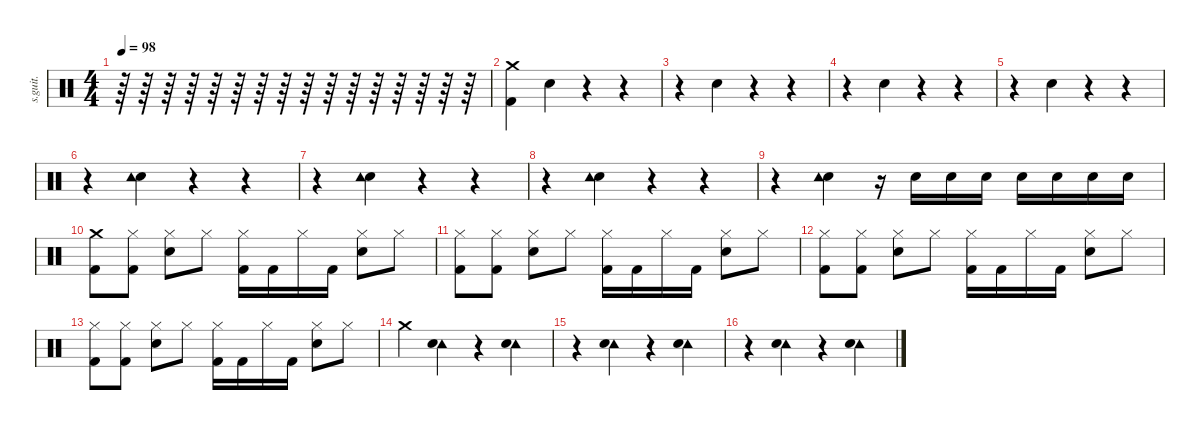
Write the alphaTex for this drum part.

\defaultSystemsLayout 4
\hideDynamics
\bracketExtendMode nobrackets
\track ("" "s.guit.") {instrument percussion}
\staff {score}
\articulation defaults
\ts (4 4)
\beaming (8 2 2 2 2)
\ac
\tempo 98
\clef neutral
\ks c
r.64{dy ff} r.64 r.64 r.64 r.64 r.64 r.64 r.64 r.64 r.64 r.64 r.64 r.64 r.64 r.64 r.64 |
("Crash medium (hit)" "Kick (hit) 2").4 "Hand Clap (hit)".4 r.4 r.4 |
r.4 "Hand Clap (hit)".4 r.4 r.4 |
r.4 "Hand Clap (hit)".4 r.4 r.4 |
r.4 "Hand Clap (hit)".4 r.4 r.4 |
r.4 ("Hand Clap (hit)" "Tambourine (hit)").4 r.4 r.4 |
r.4 ("Hand Clap (hit)" "Tambourine (hit)").4 r.4 r.4 |
r.4 ("Hand Clap (hit)" "Tambourine (hit)").4 r.4 r.4 |
r.4 ("Hand Clap (hit)" "Tambourine (hit)").4 r.16 "Snare (hit) 2".16 "Snare (hit) 2".16 "Snare (hit) 2".16 "Snare (hit) 2".16 "Snare (hit) 2".16 "Snare (hit) 2".16 "Snare (hit) 2".16 |
("Crash medium (hit)" "Kick (hit) 2").8 ("Hi-Hat (closed)" "Kick (hit) 2").8 ("Hi-Hat (closed)" "Snare (hit) 2").8 "Hi-Hat (closed)".8 ("Hi-Hat (closed)" "Kick (hit) 2").16 "Kick (hit) 2".16 "Hi-Hat (closed)".16 "Kick (hit) 2".16 ("Hi-Hat (closed)" "Snare (hit) 2").8 "Hi-Hat (closed)".8 |
("Hi-Hat (closed)" "Kick (hit) 2").8 ("Hi-Hat (closed)" "Kick (hit) 2").8 ("Hi-Hat (closed)" "Snare (hit) 2").8 "Hi-Hat (closed)".8 ("Hi-Hat (closed)" "Kick (hit) 2").16 "Kick (hit) 2".16 "Hi-Hat (closed)".16 "Kick (hit) 2".16 ("Hi-Hat (closed)" "Snare (hit) 2").8 "Hi-Hat (closed)".8 |
("Hi-Hat (closed)" "Kick (hit) 2").8 ("Hi-Hat (closed)" "Kick (hit) 2").8 ("Hi-Hat (closed)" "Snare (hit) 2").8 "Hi-Hat (closed)".8 ("Hi-Hat (closed)" "Kick (hit) 2").16 "Kick (hit) 2".16 "Hi-Hat (closed)".16 "Kick (hit) 2".16 ("Hi-Hat (closed)" "Snare (hit) 2").8 "Hi-Hat (closed)".8 |
("Hi-Hat (closed)" "Kick (hit) 2").8 ("Hi-Hat (closed)" "Kick (hit) 2").8 ("Hi-Hat (closed)" "Snare (hit) 2").8 "Hi-Hat (closed)".8 ("Hi-Hat (closed)" "Kick (hit) 2").16 "Kick (hit) 2".16 "Hi-Hat (closed)".16 "Kick (hit) 2".16 ("Hi-Hat (closed)" "Snare (hit) 2").8 "Hi-Hat (closed)".8 |
"Crash medium (hit)".4 ("Tambourine (hit)" "Hand Clap (hit)").4 r.4 ("Tambourine (hit)" "Hand Clap (hit)").4 |
r.4 ("Tambourine (hit)" "Hand Clap (hit)").4 r.4 ("Tambourine (hit)" "Hand Clap (hit)").4 |
r.4 ("Tambourine (hit)" "Hand Clap (hit)").4 r.4 ("Tambourine (hit)" "Hand Clap (hit)").4
